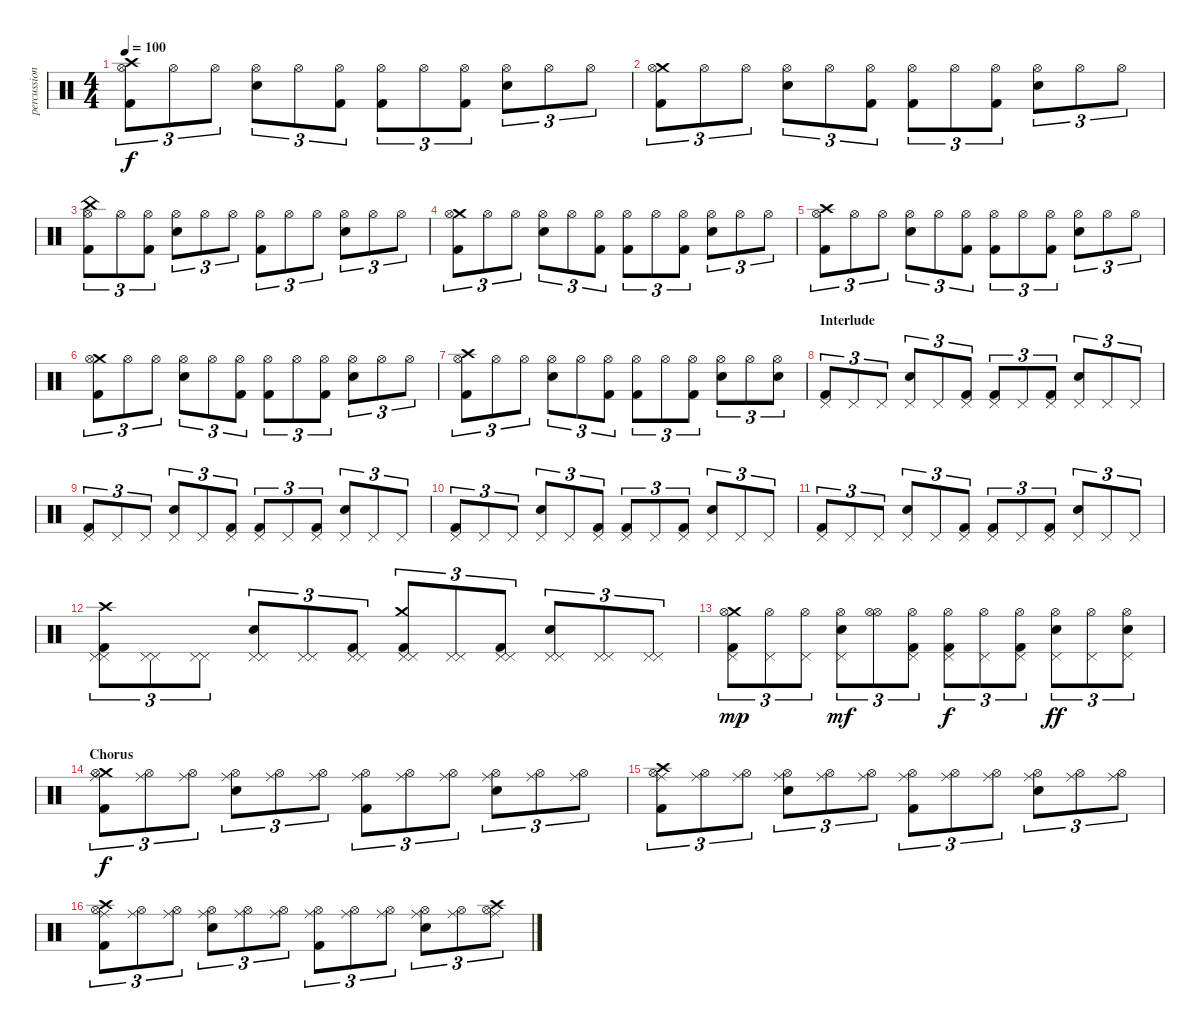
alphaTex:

\track ("percussion - vom" "percussion") {instrument percussion}
\staff {score}
\articulation defaults
\ts (4 4)
\tempo 100
\clef neutral
\ks c
("Crash high (hit)" "Hi-Hat (open)" "Kick (hit) 2").8{tu (3 2) dy f} "Hi-Hat (open)".8{tu (3 2)} "Hi-Hat (open)".8{tu (3 2)} ("Hi-Hat (open)" "Snare (hit) 2").8{tu (3 2)} "Hi-Hat (open)".8{tu (3 2)} ("Hi-Hat (open)" "Kick (hit) 2").8{tu (3 2)} ("Hi-Hat (open)" "Kick (hit) 2").8{tu (3 2)} "Hi-Hat (open)".8{tu (3 2)} ("Hi-Hat (open)" "Kick (hit) 2").8{tu (3 2)} ("Hi-Hat (open)" "Snare (hit) 2").8{tu (3 2)} "Hi-Hat (open)".8{tu (3 2)} "Hi-Hat (open)".8{tu (3 2)} |
("Crash medium (hit)" "Hi-Hat (open)" "Kick (hit) 2").8{tu (3 2)} "Hi-Hat (open)".8{tu (3 2)} "Hi-Hat (open)".8{tu (3 2)} ("Hi-Hat (open)" "Snare (hit) 2").8{tu (3 2)} "Hi-Hat (open)".8{tu (3 2)} ("Hi-Hat (open)" "Kick (hit) 2").8{tu (3 2)} ("Hi-Hat (open)" "Kick (hit) 2").8{tu (3 2)} "Hi-Hat (open)".8{tu (3 2)} ("Hi-Hat (open)" "Kick (hit) 2").8{tu (3 2)} ("Hi-Hat (open)" "Snare (hit) 2").8{tu (3 2)} "Hi-Hat (open)".8{tu (3 2)} "Hi-Hat (open)".8{tu (3 2)} |
("China (hit)" "Hi-Hat (open)" "Kick (hit) 2").8{tu (3 2)} "Hi-Hat (open)".8{tu (3 2)} ("Hi-Hat (open)" "Kick (hit) 2").8{tu (3 2)} ("Hi-Hat (open)" "Snare (hit) 2").8{tu (3 2)} "Hi-Hat (open)".8{tu (3 2)} "Hi-Hat (open)".8{tu (3 2)} ("Hi-Hat (open)" "Kick (hit) 2").8{tu (3 2)} "Hi-Hat (open)".8{tu (3 2)} "Hi-Hat (open)".8{tu (3 2)} ("Hi-Hat (open)" "Snare (hit) 2").8{tu (3 2)} "Hi-Hat (open)".8{tu (3 2)} "Hi-Hat (open)".8{tu (3 2)} |
("Crash medium (hit)" "Hi-Hat (open)" "Kick (hit) 2").8{tu (3 2)} "Hi-Hat (open)".8{tu (3 2)} "Hi-Hat (open)".8{tu (3 2)} ("Hi-Hat (open)" "Snare (hit) 2").8{tu (3 2)} "Hi-Hat (open)".8{tu (3 2)} ("Hi-Hat (open)" "Kick (hit) 2").8{tu (3 2)} ("Hi-Hat (open)" "Kick (hit) 2").8{tu (3 2)} "Hi-Hat (open)".8{tu (3 2)} ("Hi-Hat (open)" "Kick (hit) 2").8{tu (3 2)} ("Hi-Hat (open)" "Snare (hit) 2").8{tu (3 2)} "Hi-Hat (open)".8{tu (3 2)} "Hi-Hat (open)".8{tu (3 2)} |
("Crash high (hit)" "Hi-Hat (open)" "Kick (hit) 2").8{tu (3 2)} "Hi-Hat (open)".8{tu (3 2)} "Hi-Hat (open)".8{tu (3 2)} ("Hi-Hat (open)" "Snare (hit) 2").8{tu (3 2)} "Hi-Hat (open)".8{tu (3 2)} ("Hi-Hat (open)" "Kick (hit) 2").8{tu (3 2)} ("Hi-Hat (open)" "Kick (hit) 2").8{tu (3 2)} "Hi-Hat (open)".8{tu (3 2)} ("Hi-Hat (open)" "Kick (hit) 2").8{tu (3 2)} ("Hi-Hat (open)" "Snare (hit) 2").8{tu (3 2)} "Hi-Hat (open)".8{tu (3 2)} "Hi-Hat (open)".8{tu (3 2)} |
("Crash medium (hit)" "Hi-Hat (open)" "Kick (hit) 2").8{tu (3 2)} "Hi-Hat (open)".8{tu (3 2)} "Hi-Hat (open)".8{tu (3 2)} ("Hi-Hat (open)" "Snare (hit) 2").8{tu (3 2)} "Hi-Hat (open)".8{tu (3 2)} ("Hi-Hat (open)" "Kick (hit) 2").8{tu (3 2)} ("Hi-Hat (open)" "Kick (hit) 2").8{tu (3 2)} "Hi-Hat (open)".8{tu (3 2)} ("Hi-Hat (open)" "Kick (hit) 2").8{tu (3 2)} ("Hi-Hat (open)" "Snare (hit) 2").8{tu (3 2)} "Hi-Hat (open)".8{tu (3 2)} "Hi-Hat (open)".8{tu (3 2)} |
("Crash high (hit)" "Hi-Hat (open)" "Kick (hit) 2").8{tu (3 2)} "Hi-Hat (open)".8{tu (3 2)} "Hi-Hat (open)".8{tu (3 2)} ("Hi-Hat (open)" "Snare (hit) 2").8{tu (3 2)} "Hi-Hat (open)".8{tu (3 2)} ("Hi-Hat (open)" "Kick (hit) 2").8{tu (3 2)} ("Hi-Hat (open)" "Kick (hit) 2").8{tu (3 2)} "Hi-Hat (open)".8{tu (3 2)} ("Hi-Hat (open)" "Kick (hit) 2").8{tu (3 2)} ("Hi-Hat (open)" "Snare (hit) 2").8{tu (3 2)} "Hi-Hat (open)".8{tu (3 2)} ("Hi-Hat (open)" "Snare (hit) 2").8{tu (3 2)} |
\section ("" "Interlude")
("Pedal Hi-Hat (hit)" "Kick (hit) 2").8{tu (3 2)} "Pedal Hi-Hat (hit)".8{tu (3 2)} "Pedal Hi-Hat (hit)".8{tu (3 2)} ("Pedal Hi-Hat (hit)" "Snare (hit) 2").8{tu (3 2)} "Pedal Hi-Hat (hit)".8{tu (3 2)} ("Pedal Hi-Hat (hit)" "Kick (hit) 2").8{tu (3 2)} ("Pedal Hi-Hat (hit)" "Kick (hit) 2").8{tu (3 2)} "Pedal Hi-Hat (hit)".8{tu (3 2)} ("Pedal Hi-Hat (hit)" "Kick (hit) 2").8{tu (3 2)} ("Pedal Hi-Hat (hit)" "Snare (hit) 2").8{tu (3 2)} "Pedal Hi-Hat (hit)".8{tu (3 2)} "Pedal Hi-Hat (hit)".8{tu (3 2)} |
("Pedal Hi-Hat (hit)" "Kick (hit) 2").8{tu (3 2)} "Pedal Hi-Hat (hit)".8{tu (3 2)} "Pedal Hi-Hat (hit)".8{tu (3 2)} ("Pedal Hi-Hat (hit)" "Snare (hit) 2").8{tu (3 2)} "Pedal Hi-Hat (hit)".8{tu (3 2)} ("Pedal Hi-Hat (hit)" "Kick (hit) 2").8{tu (3 2)} ("Pedal Hi-Hat (hit)" "Kick (hit) 2").8{tu (3 2)} "Pedal Hi-Hat (hit)".8{tu (3 2)} ("Pedal Hi-Hat (hit)" "Kick (hit) 2").8{tu (3 2)} ("Pedal Hi-Hat (hit)" "Snare (hit) 2").8{tu (3 2)} "Pedal Hi-Hat (hit)".8{tu (3 2)} "Pedal Hi-Hat (hit)".8{tu (3 2)} |
("Pedal Hi-Hat (hit)" "Kick (hit) 2").8{tu (3 2)} "Pedal Hi-Hat (hit)".8{tu (3 2)} "Pedal Hi-Hat (hit)".8{tu (3 2)} ("Pedal Hi-Hat (hit)" "Snare (hit) 2").8{tu (3 2)} "Pedal Hi-Hat (hit)".8{tu (3 2)} ("Pedal Hi-Hat (hit)" "Kick (hit) 2").8{tu (3 2)} ("Pedal Hi-Hat (hit)" "Kick (hit) 2").8{tu (3 2)} "Pedal Hi-Hat (hit)".8{tu (3 2)} ("Pedal Hi-Hat (hit)" "Kick (hit) 2").8{tu (3 2)} ("Pedal Hi-Hat (hit)" "Snare (hit) 2").8{tu (3 2)} "Pedal Hi-Hat (hit)".8{tu (3 2)} "Pedal Hi-Hat (hit)".8{tu (3 2)} |
("Pedal Hi-Hat (hit)" "Kick (hit) 2").8{tu (3 2)} "Pedal Hi-Hat (hit)".8{tu (3 2)} "Pedal Hi-Hat (hit)".8{tu (3 2)} ("Pedal Hi-Hat (hit)" "Snare (hit) 2").8{tu (3 2)} "Pedal Hi-Hat (hit)".8{tu (3 2)} ("Pedal Hi-Hat (hit)" "Kick (hit) 2").8{tu (3 2)} ("Pedal Hi-Hat (hit)" "Kick (hit) 2").8{tu (3 2)} "Pedal Hi-Hat (hit)".8{tu (3 2)} ("Pedal Hi-Hat (hit)" "Kick (hit) 2").8{tu (3 2)} ("Pedal Hi-Hat (hit)" "Snare (hit) 2").8{tu (3 2)} "Pedal Hi-Hat (hit)".8{tu (3 2)} "Pedal Hi-Hat (hit)".8{tu (3 2)} |
("Pedal Hi-Hat (hit)" "Crash high (hit)" "Pedal Hi-Hat (hit)" "Kick (hit) 2").8{tu (3 2)} ("Pedal Hi-Hat (hit)" "Pedal Hi-Hat (hit)").8{tu (3 2)} ("Pedal Hi-Hat (hit)" "Pedal Hi-Hat (hit)").8{tu (3 2)} ("Pedal Hi-Hat (hit)" "Pedal Hi-Hat (hit)" "Snare (hit) 2").8{tu (3 2)} ("Pedal Hi-Hat (hit)" "Pedal Hi-Hat (hit)").8{tu (3 2)} ("Pedal Hi-Hat (hit)" "Pedal Hi-Hat (hit)" "Kick (hit) 2").8{tu (3 2)} ("Pedal Hi-Hat (hit)" "Crash medium (hit)" "Pedal Hi-Hat (hit)" "Kick (hit) 2").8{tu (3 2)} ("Pedal Hi-Hat (hit)" "Pedal Hi-Hat (hit)").8{tu (3 2)} ("Pedal Hi-Hat (hit)" "Pedal Hi-Hat (hit)" "Kick (hit) 2").8{tu (3 2)} ("Pedal Hi-Hat (hit)" "Pedal Hi-Hat (hit)" "Snare (hit) 2").8{tu (3 2)} ("Pedal Hi-Hat (hit)" "Pedal Hi-Hat (hit)").8{tu (3 2)} ("Pedal Hi-Hat (hit)" "Pedal Hi-Hat (hit)").8{tu (3 2)} |
("Pedal Hi-Hat (hit)" "Crash medium (hit)" "Hi-Hat (open)" "Kick (hit) 2").8{tu (3 2) dy mp} ("Pedal Hi-Hat (hit)" "Hi-Hat (open)").8{tu (3 2)} ("Pedal Hi-Hat (hit)" "Hi-Hat (open)").8{tu (3 2)} ("Pedal Hi-Hat (hit)" "Hi-Hat (open)" "Snare (hit) 2").8{tu (3 2) dy mf} ("Hi-Hat (open)" "Hi-Hat (open)").8{tu (3 2)} ("Pedal Hi-Hat (hit)" "Hi-Hat (open)" "Kick (hit) 2").8{tu (3 2)} ("Pedal Hi-Hat (hit)" "Hi-Hat (open)" "Kick (hit) 2").8{tu (3 2) dy f} ("Pedal Hi-Hat (hit)" "Hi-Hat (open)").8{tu (3 2)} ("Pedal Hi-Hat (hit)" "Hi-Hat (open)" "Kick (hit) 2").8{tu (3 2)} ("Pedal Hi-Hat (hit)" "Hi-Hat (open)" "Snare (hit) 2").8{tu (3 2) dy ff} ("Pedal Hi-Hat (hit)" "Hi-Hat (open)").8{tu (3 2)} ("Pedal Hi-Hat (hit)" "Hi-Hat (open)" "Snare (hit) 2").8{tu (3 2)} |
\section ("" "Chorus")
("Ride (middle)" "Crash medium (hit)" "Hi-Hat (open)" "Kick (hit) 2").8{tu (3 2) dy f} ("Ride (middle)" "Hi-Hat (open)").8{tu (3 2)} ("Ride (middle)" "Hi-Hat (open)").8{tu (3 2)} ("Ride (middle)" "Hi-Hat (open)" "Snare (hit) 2").8{tu (3 2)} ("Ride (middle)" "Hi-Hat (open)").8{tu (3 2)} ("Ride (middle)" "Hi-Hat (open)").8{tu (3 2)} ("Ride (middle)" "Hi-Hat (open)" "Kick (hit) 2").8{tu (3 2)} ("Ride (middle)" "Hi-Hat (open)").8{tu (3 2)} ("Ride (middle)" "Hi-Hat (open)").8{tu (3 2)} ("Ride (middle)" "Hi-Hat (open)" "Snare (hit) 2").8{tu (3 2)} ("Ride (middle)" "Hi-Hat (open)").8{tu (3 2)} ("Ride (middle)" "Hi-Hat (open)").8{tu (3 2)} |
("Ride (middle)" "Crash high (hit)" "Hi-Hat (open)" "Kick (hit) 2").8{tu (3 2)} ("Ride (middle)" "Hi-Hat (open)").8{tu (3 2)} ("Ride (middle)" "Hi-Hat (open)").8{tu (3 2)} ("Ride (middle)" "Hi-Hat (open)" "Snare (hit) 2").8{tu (3 2)} ("Ride (middle)" "Hi-Hat (open)").8{tu (3 2)} ("Ride (middle)" "Hi-Hat (open)").8{tu (3 2)} ("Ride (middle)" "Hi-Hat (open)" "Kick (hit) 2").8{tu (3 2)} ("Ride (middle)" "Hi-Hat (open)").8{tu (3 2)} ("Ride (middle)" "Hi-Hat (open)").8{tu (3 2)} ("Ride (middle)" "Hi-Hat (open)" "Snare (hit) 2").8{tu (3 2)} ("Ride (middle)" "Hi-Hat (open)").8{tu (3 2)} ("Ride (middle)" "Hi-Hat (open)").8{tu (3 2)} |
("Ride (middle)" "Crash high (hit)" "Hi-Hat (open)" "Kick (hit) 2").8{tu (3 2)} ("Ride (middle)" "Hi-Hat (open)").8{tu (3 2)} ("Ride (middle)" "Hi-Hat (open)").8{tu (3 2)} ("Ride (middle)" "Hi-Hat (open)" "Snare (hit) 2").8{tu (3 2)} ("Ride (middle)" "Hi-Hat (open)").8{tu (3 2)} ("Ride (middle)" "Hi-Hat (open)").8{tu (3 2)} ("Ride (middle)" "Hi-Hat (open)" "Kick (hit) 2").8{tu (3 2)} ("Ride (middle)" "Hi-Hat (open)").8{tu (3 2)} ("Ride (middle)" "Hi-Hat (open)").8{tu (3 2)} ("Ride (middle)" "Hi-Hat (open)" "Snare (hit) 2").8{tu (3 2)} ("Ride (middle)" "Hi-Hat (open)").8{tu (3 2)} ("Ride (middle)" "Crash high (hit)" "Hi-Hat (open)").8{tu (3 2)}
